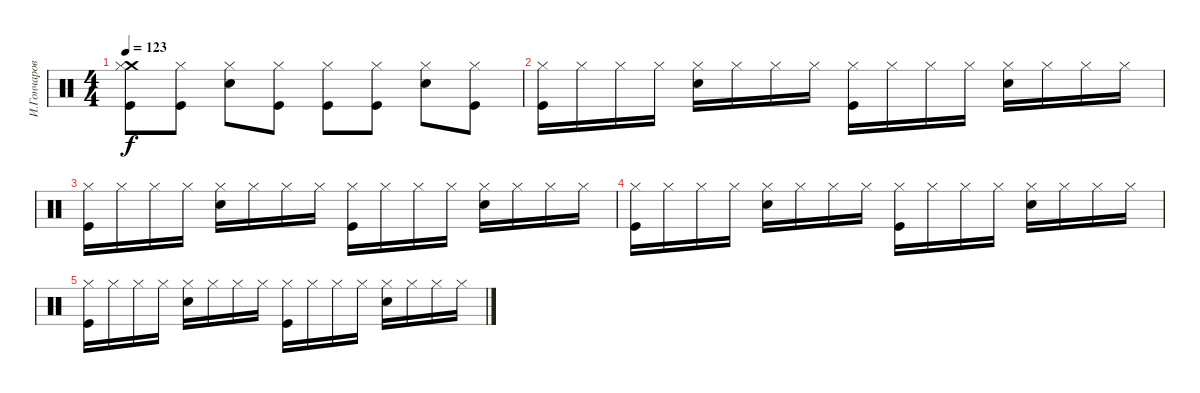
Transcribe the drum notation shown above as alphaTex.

\track ("И.Гончаров" "И.Гончаров") {instrument percussion}
\staff {score}
\articulation defaults
\ts (4 4)
\tempo 123
\clef neutral
\ks c
("Crash medium (hit)" "Hi-Hat (closed)" "Kick (hit)").8{dy f} ("Hi-Hat (closed)" "Kick (hit)").8 ("Hi-Hat (closed)" "Snare (hit) 2").8 ("Hi-Hat (closed)" "Kick (hit)").8 ("Hi-Hat (closed)" "Kick (hit)").8 ("Hi-Hat (closed)" "Kick (hit)").8 ("Hi-Hat (closed)" "Snare (hit) 2").8 ("Hi-Hat (closed)" "Kick (hit)").8 |
("Hi-Hat (closed)" "Kick (hit)").16{volume 0} "Hi-Hat (closed)".16 "Hi-Hat (closed)".16 "Hi-Hat (closed)".16 ("Hi-Hat (closed)" "Snare (hit) 2").16 "Hi-Hat (closed)".16 "Hi-Hat (closed)".16 "Hi-Hat (closed)".16 ("Hi-Hat (closed)" "Kick (hit)").16 "Hi-Hat (closed)".16 "Hi-Hat (closed)".16 "Hi-Hat (closed)".16 ("Hi-Hat (closed)" "Snare (hit) 2").16 "Hi-Hat (closed)".16 "Hi-Hat (closed)".16 "Hi-Hat (closed)".16 |
("Hi-Hat (closed)" "Kick (hit)").16 "Hi-Hat (closed)".16 "Hi-Hat (closed)".16 "Hi-Hat (closed)".16 ("Hi-Hat (closed)" "Snare (hit) 2").16 "Hi-Hat (closed)".16 "Hi-Hat (closed)".16 "Hi-Hat (closed)".16 ("Hi-Hat (closed)" "Kick (hit)").16 "Hi-Hat (closed)".16 "Hi-Hat (closed)".16 "Hi-Hat (closed)".16 ("Hi-Hat (closed)" "Snare (hit) 2").16 "Hi-Hat (closed)".16 "Hi-Hat (closed)".16 "Hi-Hat (closed)".16 |
("Hi-Hat (closed)" "Kick (hit)").16 "Hi-Hat (closed)".16 "Hi-Hat (closed)".16 "Hi-Hat (closed)".16 ("Hi-Hat (closed)" "Snare (hit) 2").16 "Hi-Hat (closed)".16 "Hi-Hat (closed)".16 "Hi-Hat (closed)".16 ("Hi-Hat (closed)" "Kick (hit)").16 "Hi-Hat (closed)".16 "Hi-Hat (closed)".16 "Hi-Hat (closed)".16 ("Hi-Hat (closed)" "Snare (hit) 2").16 "Hi-Hat (closed)".16 "Hi-Hat (closed)".16 "Hi-Hat (closed)".16 |
("Hi-Hat (closed)" "Kick (hit)").16 "Hi-Hat (closed)".16 "Hi-Hat (closed)".16 "Hi-Hat (closed)".16 ("Hi-Hat (closed)" "Snare (hit) 2").16 "Hi-Hat (closed)".16 "Hi-Hat (closed)".16 "Hi-Hat (closed)".16 ("Hi-Hat (closed)" "Kick (hit)").16 "Hi-Hat (closed)".16 "Hi-Hat (closed)".16 "Hi-Hat (closed)".16 ("Hi-Hat (closed)" "Snare (hit) 2").16 "Hi-Hat (closed)".16 "Hi-Hat (closed)".16 "Hi-Hat (closed)".16
